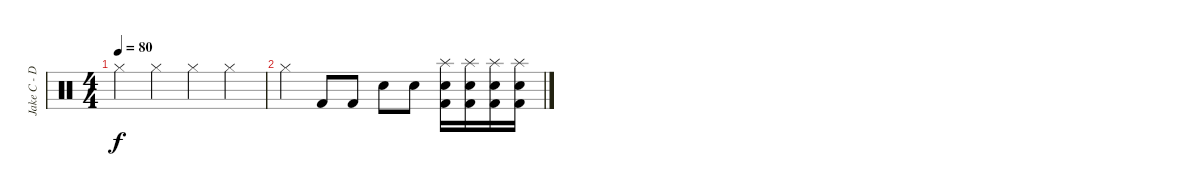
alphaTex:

\track ("Jake C - Drums" "Jake C - D") {instrument percussion}
\staff {score}
\articulation defaults
\ts (4 4)
\tempo 80
\clef neutral
\ks c "Hi-Hat (closed)".4{dy f} "Hi-Hat (closed)".4 "Hi-Hat (closed)".4 "Hi-Hat (closed)".4
|
"Hi-Hat (closed)".4 "Kick (hit) 2".8 "Kick (hit) 2".8 "Electric Snare (hit)".8 "Electric Snare (hit)".8 ("Splash (hit)" "Electric Snare (hit)" "Kick (hit) 2").16 ("Splash (hit)" "Electric Snare (hit)" "Kick (hit) 2").16 ("Splash (hit)" "Electric Snare (hit)" "Kick (hit) 2").16 ("Splash (hit)" "Electric Snare (hit)" "Kick (hit) 2").16
